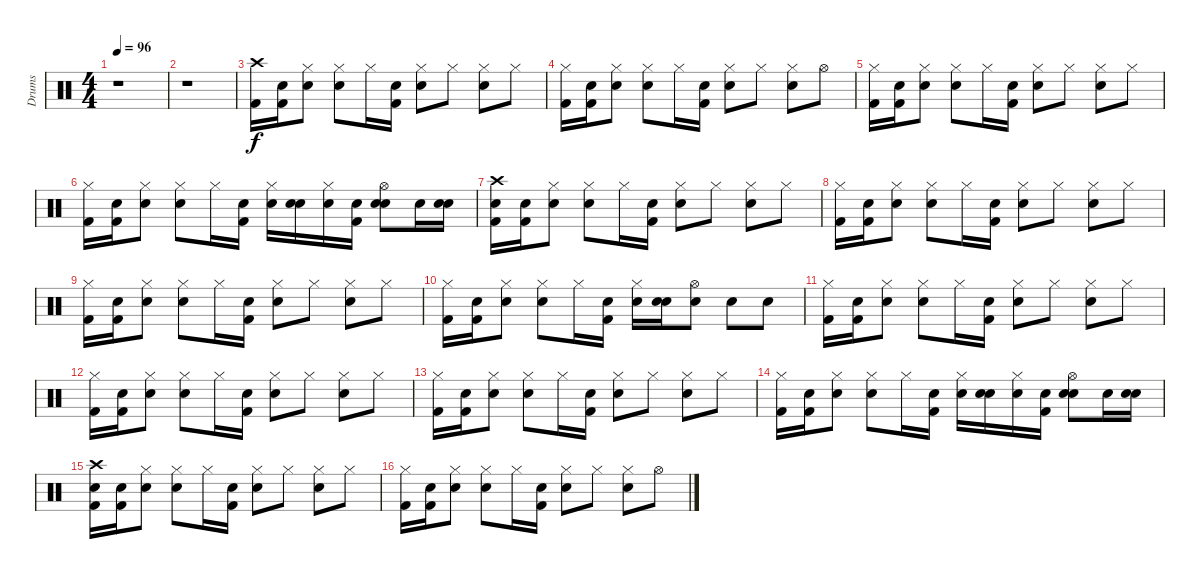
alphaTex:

\track ("Drums" "Drums") {instrument percussion}
\staff {score}
\articulation defaults
\ts (4 4)
\tempo 96
\clef neutral
\ks c
r.1{dy f} |
r.1 |
("Crash high (hit)" "Kick (hit) 2").16 ("Snare (hit)" "Kick (hit) 2").16 ("Snare (hit)" "Hi-Hat (closed)").8 ("Snare (hit) 2" "Hi-Hat (closed)").8 "Hi-Hat (closed)".16 ("Snare (hit)" "Kick (hit) 2").16 ("Snare (hit)" "Hi-Hat (closed)").8 "Hi-Hat (closed)".8 ("Snare (hit) 2" "Hi-Hat (closed)").8 "Hi-Hat (closed)".8 |
("Hi-Hat (closed)" "Kick (hit) 2").16 ("Snare (hit)" "Kick (hit) 2").16 ("Snare (hit)" "Hi-Hat (closed)").8 ("Snare (hit) 2" "Hi-Hat (closed)").8 "Hi-Hat (closed)".16 ("Snare (hit)" "Kick (hit) 2").16 ("Snare (hit)" "Hi-Hat (closed)").8 "Hi-Hat (closed)".8 ("Snare (hit) 2" "Hi-Hat (closed)").8 "Hi-Hat (open)".8 |
("Hi-Hat (closed)" "Kick (hit) 2").16 ("Snare (hit)" "Kick (hit) 2").16 ("Snare (hit)" "Hi-Hat (closed)").8 ("Snare (hit) 2" "Hi-Hat (closed)").8 "Hi-Hat (closed)".16 ("Snare (hit)" "Kick (hit) 2").16 ("Snare (hit)" "Hi-Hat (closed)").8 "Hi-Hat (closed)".8 ("Snare (hit) 2" "Hi-Hat (closed)").8 "Hi-Hat (closed)".8 |
("Hi-Hat (closed)" "Kick (hit) 2").16 ("Snare (hit)" "Kick (hit) 2").16 ("Snare (hit)" "Hi-Hat (closed)").8 ("Snare (hit) 2" "Hi-Hat (closed)").8 "Hi-Hat (closed)".16 ("Snare (hit)" "Kick (hit) 2").16 ("Snare (hit)" "Hi-Hat (closed)").16 ("Snare (hit)" "Snare (hit) 2").16 ("Snare (hit)" "Hi-Hat (closed)").16 ("Snare (hit)" "Kick (hit) 2").16 ("Snare (hit)" "Snare (hit) 2" "Hi-Hat (open)").8 "Snare (hit) 2".16 ("Snare (hit)" "Snare (hit) 2").16 |
("Snare (hit)" "Crash high (hit)" "Kick (hit) 2").16 ("Snare (hit)" "Kick (hit) 2").16 ("Snare (hit)" "Hi-Hat (closed)").8 ("Snare (hit) 2" "Hi-Hat (closed)").8 "Hi-Hat (closed)".16 ("Snare (hit)" "Kick (hit) 2").16 ("Snare (hit)" "Hi-Hat (closed)").8 "Hi-Hat (closed)".8 ("Snare (hit) 2" "Hi-Hat (closed)").8 "Hi-Hat (closed)".8 |
("Hi-Hat (closed)" "Kick (hit) 2").16 ("Snare (hit)" "Kick (hit) 2").16 ("Snare (hit)" "Hi-Hat (closed)").8 ("Snare (hit) 2" "Hi-Hat (closed)").8 "Hi-Hat (closed)".16 ("Snare (hit)" "Kick (hit) 2").16 ("Snare (hit)" "Hi-Hat (closed)").8 "Hi-Hat (closed)".8 ("Snare (hit) 2" "Hi-Hat (closed)").8 "Hi-Hat (closed)".8 |
("Hi-Hat (closed)" "Kick (hit) 2").16 ("Snare (hit)" "Kick (hit) 2").16 ("Snare (hit)" "Hi-Hat (closed)").8 ("Snare (hit) 2" "Hi-Hat (closed)").8 "Hi-Hat (closed)".16 ("Snare (hit)" "Kick (hit) 2").16 ("Snare (hit)" "Hi-Hat (closed)").8 "Hi-Hat (closed)".8 ("Snare (hit) 2" "Hi-Hat (closed)").8 "Hi-Hat (closed)".8 |
("Hi-Hat (closed)" "Kick (hit) 2").16 ("Snare (hit)" "Kick (hit) 2").16 ("Snare (hit)" "Hi-Hat (closed)").8 ("Snare (hit) 2" "Hi-Hat (closed)").8 "Hi-Hat (closed)".16 ("Snare (hit)" "Kick (hit) 2").16 ("Snare (hit)" "Hi-Hat (closed)").16 ("Snare (hit)" "Snare (hit) 2").16 ("Snare (hit)" "Hi-Hat (open)").8 "Snare (hit) 2".8 "Snare (hit) 2".8 |
("Hi-Hat (closed)" "Kick (hit) 2").16 ("Snare (hit)" "Kick (hit) 2").16 ("Snare (hit)" "Hi-Hat (closed)").8 ("Snare (hit) 2" "Hi-Hat (closed)").8 "Hi-Hat (closed)".16 ("Snare (hit)" "Kick (hit) 2").16 ("Snare (hit)" "Hi-Hat (closed)").8 "Hi-Hat (closed)".8 ("Snare (hit) 2" "Hi-Hat (closed)").8 "Hi-Hat (closed)".8 |
("Hi-Hat (closed)" "Kick (hit) 2").16 ("Snare (hit)" "Kick (hit) 2").16 ("Snare (hit)" "Hi-Hat (closed)").8 ("Snare (hit) 2" "Hi-Hat (closed)").8 "Hi-Hat (closed)".16 ("Snare (hit)" "Kick (hit) 2").16 ("Snare (hit)" "Hi-Hat (closed)").8 "Hi-Hat (closed)".8 ("Snare (hit) 2" "Hi-Hat (closed)").8 "Hi-Hat (closed)".8 |
("Hi-Hat (closed)" "Kick (hit) 2").16 ("Snare (hit)" "Kick (hit) 2").16 ("Snare (hit)" "Hi-Hat (closed)").8 ("Snare (hit) 2" "Hi-Hat (closed)").8 "Hi-Hat (closed)".16 ("Snare (hit)" "Kick (hit) 2").16 ("Snare (hit)" "Hi-Hat (closed)").8 "Hi-Hat (closed)".8 ("Snare (hit) 2" "Hi-Hat (closed)").8 "Hi-Hat (closed)".8 |
("Hi-Hat (closed)" "Kick (hit) 2").16 ("Snare (hit)" "Kick (hit) 2").16 ("Snare (hit)" "Hi-Hat (closed)").8 ("Snare (hit) 2" "Hi-Hat (closed)").8 "Hi-Hat (closed)".16 ("Snare (hit)" "Kick (hit) 2").16 ("Snare (hit)" "Hi-Hat (closed)").16 ("Snare (hit)" "Snare (hit) 2").16 ("Snare (hit)" "Hi-Hat (closed)").16 ("Snare (hit)" "Kick (hit) 2").16 ("Snare (hit)" "Snare (hit) 2" "Hi-Hat (open)").8 "Snare (hit) 2".16 ("Snare (hit)" "Snare (hit) 2").16 |
("Snare (hit)" "Crash high (hit)" "Kick (hit) 2").16 ("Snare (hit)" "Kick (hit) 2").16 ("Snare (hit)" "Hi-Hat (closed)").8 ("Snare (hit) 2" "Hi-Hat (closed)").8 "Hi-Hat (closed)".16 ("Snare (hit)" "Kick (hit) 2").16 ("Snare (hit)" "Hi-Hat (closed)").8 "Hi-Hat (closed)".8 ("Snare (hit) 2" "Hi-Hat (closed)").8 "Hi-Hat (closed)".8 |
("Hi-Hat (closed)" "Kick (hit) 2").16 ("Snare (hit)" "Kick (hit) 2").16 ("Snare (hit)" "Hi-Hat (closed)").8 ("Snare (hit) 2" "Hi-Hat (closed)").8 "Hi-Hat (closed)".16 ("Snare (hit)" "Kick (hit) 2").16 ("Snare (hit)" "Hi-Hat (closed)").8 "Hi-Hat (closed)".8 ("Snare (hit) 2" "Hi-Hat (closed)").8 "Hi-Hat (open)".8
